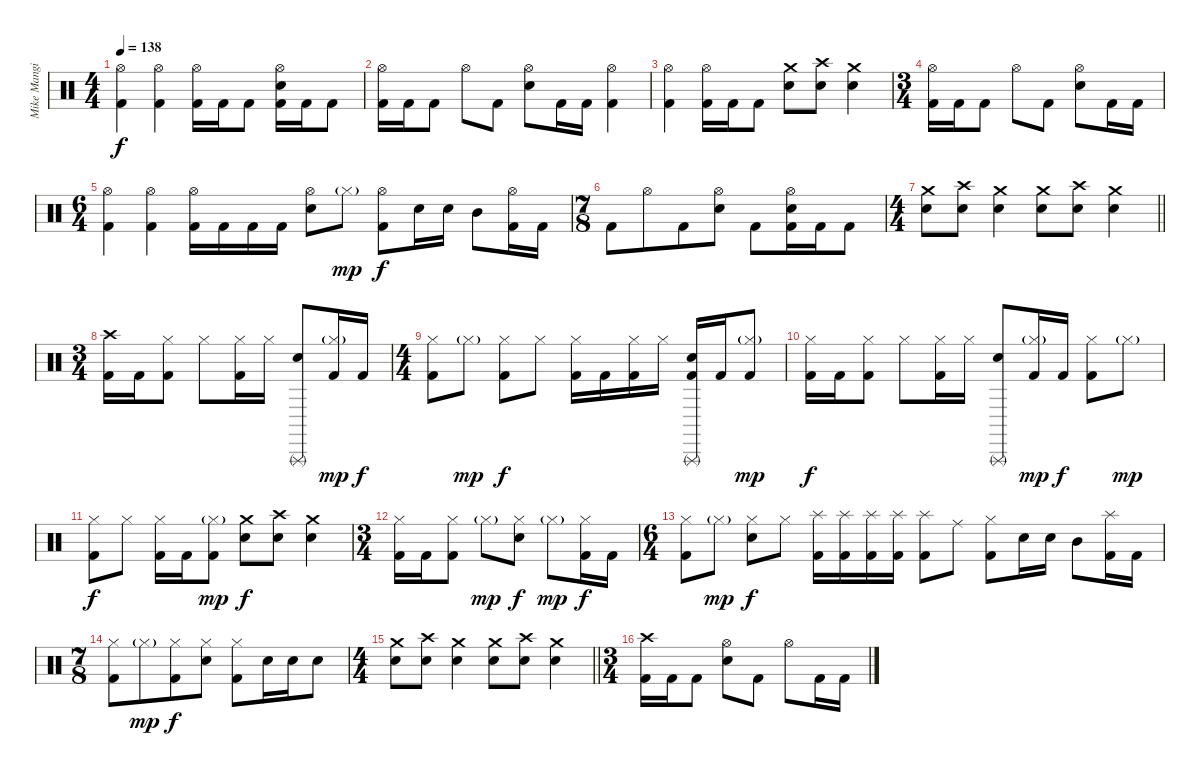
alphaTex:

\track ("Mike Mangini" "Mike Mangi") {instrument percussion}
\staff {score}
\articulation defaults
\ts (4 4)
\tempo 138
\clef neutral
\ks c
("Hi-Hat (open)" "Kick (hit) 2").4{dy f} ("Hi-Hat (open)" "Kick (hit) 2").4 ("Hi-Hat (open)" "Kick (hit) 2").16 "Kick (hit) 2".16 "Kick (hit) 2".8 ("Hi-Hat (open)" "Electric Snare (hit)" "Kick (hit) 2").16 "Kick (hit) 2".16 "Kick (hit) 2".8 |
("Hi-Hat (open)" "Kick (hit) 2").16 "Kick (hit) 2".16 "Kick (hit) 2".8 "Hi-Hat (open)".8 "Kick (hit) 2".8 ("Hi-Hat (open)" "Electric Snare (hit)").8 "Kick (hit) 2".16 "Kick (hit) 2".16 ("Hi-Hat (open)" "Kick (hit) 2").4 |
("Hi-Hat (open)" "Kick (hit) 2").4 ("Hi-Hat (open)" "Kick (hit) 2").16 "Kick (hit) 2".16 "Kick (hit) 2".8 ("Crash medium (hit)" "Electric Snare (hit)").8 ("Crash high (hit)" "Electric Snare (hit)").8 ("Crash medium (hit)" "Electric Snare (hit)").4 |
\ts (3 4)
("Hi-Hat (open)" "Kick (hit) 2").16 "Kick (hit) 2".16 "Kick (hit) 2".8 "Hi-Hat (open)".8 "Kick (hit) 2".8 ("Hi-Hat (open)" "Electric Snare (hit)").8 "Kick (hit) 2".16 "Kick (hit) 2".16 |
\ts (6 4)
("Hi-Hat (open)" "Kick (hit) 2").4 ("Hi-Hat (open)" "Kick (hit) 2").4 ("Hi-Hat (open)" "Kick (hit) 2").16 "Kick (hit) 2".16 "Kick (hit) 2".16 "Kick (hit) 2".16 ("Hi-Hat (open)" "Electric Snare (hit)").8 "Hi-Hat (closed)"{g}.8{dy mp} ("Hi-Hat (open)" "Kick (hit) 2").8{dy f} "Electric Snare (hit)".16 "Electric Snare (hit)".16 "Mid Tom (hit)".8 ("Hi-Hat (open)" "Kick (hit) 2").16 "Kick (hit) 2".16 |
\ts (7 8)
"Kick (hit) 2".8 "Hi-Hat (open)".8 "Kick (hit) 2".8 ("Hi-Hat (open)" "Electric Snare (hit)").8 "Kick (hit) 2".8 ("Hi-Hat (open)" "Electric Snare (hit)" "Kick (hit) 2").16 "Kick (hit) 2".16 "Kick (hit) 2".8 |
\ts (4 4)
\barLineRight lightlight
("Crash medium (hit)" "Electric Snare (hit)").8 ("Crash high (hit)" "Electric Snare (hit)").8 ("Crash medium (hit)" "Electric Snare (hit)").4 ("Crash medium (hit)" "Electric Snare (hit)").8 ("Crash high (hit)" "Electric Snare (hit)").8 ("Crash medium (hit)" "Electric Snare (hit)").4 |
\ts (3 4)
("Crash high (hit)" "Kick (hit) 2").16 "Kick (hit) 2".16 ("Hi-Hat (closed)" "Kick (hit) 2").8 "Hi-Hat (closed)".8 ("Hi-Hat (closed)" "Kick (hit) 2").16 "Hi-Hat (closed)".16 ("Triangle (rnute)" "Electric Snare (hit)").8 ("Hi-Hat (closed)"{g} "Kick (hit) 2").16{dy mp} "Kick (hit) 2".16{dy f} |
\ts (4 4)
("Hi-Hat (closed)" "Kick (hit) 2").8 "Hi-Hat (closed)"{g}.8{dy mp} ("Hi-Hat (closed)" "Kick (hit) 2").8{dy f} "Hi-Hat (closed)".8 ("Hi-Hat (closed)" "Kick (hit) 2").16 "Kick (hit) 2".16 ("Hi-Hat (closed)" "Kick (hit) 2").16 "Hi-Hat (closed)".16 ("Triangle (rnute)" "Electric Snare (hit)" "Kick (hit) 2").16 "Kick (hit) 2".16 ("Hi-Hat (closed)"{g} "Kick (hit) 2").8{dy mp} |
("Hi-Hat (closed)" "Kick (hit) 2").16{dy f} "Kick (hit) 2".16 ("Hi-Hat (closed)" "Kick (hit) 2").8 "Hi-Hat (closed)".8 ("Hi-Hat (closed)" "Kick (hit) 2").16 "Hi-Hat (closed)".16 ("Triangle (rnute)" "Electric Snare (hit)").8 ("Hi-Hat (closed)"{g} "Kick (hit) 2").16{dy mp} "Kick (hit) 2".16{dy f} ("Hi-Hat (closed)" "Kick (hit) 2").8 "Hi-Hat (closed)"{g}.8{dy mp} |
("Hi-Hat (closed)" "Kick (hit) 2").8{dy f} "Hi-Hat (closed)".8 ("Hi-Hat (closed)" "Kick (hit) 2").16 "Kick (hit) 2".16 ("Hi-Hat (closed)"{g} "Kick (hit) 2").8{dy mp} ("Crash medium (hit)" "Electric Snare (hit)").8{dy f} ("Crash high (hit)" "Electric Snare (hit)").8 ("Crash medium (hit)" "Electric Snare (hit)").4 |
\ts (3 4)
("Hi-Hat (closed)" "Kick (hit) 2").16 "Kick (hit) 2".16 ("Hi-Hat (closed)" "Kick (hit) 2").8 "Hi-Hat (closed)"{g}.8{dy mp} ("Hi-Hat (closed)" "Electric Snare (hit)").8{dy f} "Hi-Hat (closed)"{g}.8{dy mp} ("Hi-Hat (closed)" "Kick (hit) 2").16{dy f} "Kick (hit) 2".16 |
\ts (6 4)
("Hi-Hat (closed)" "Kick (hit) 2").8 "Hi-Hat (closed)"{g}.8{dy mp} ("Hi-Hat (closed)" "Electric Snare (hit)").8{dy f} "Hi-Hat (closed)".8 ("Splash (hit)" "Kick (hit) 2").16 ("Splash (hit)" "Kick (hit) 2").16 ("Splash (hit)" "Kick (hit) 2").16 ("Splash (hit)" "Kick (hit) 2").16 ("Splash (hit)" "Kick (hit) 2").8 "Ride (middle)".8 ("Hi-Hat (closed)" "Kick (hit) 2").8 "Electric Snare (hit)".16 "Electric Snare (hit)".16 "Mid Tom (hit)".8 ("Splash (hit)" "Kick (hit) 2").16 "Kick (hit) 2".16 |
\ts (7 8)
("Hi-Hat (closed)" "Kick (hit) 2").8 "Hi-Hat (closed)"{g}.8{dy mp} ("Hi-Hat (closed)" "Kick (hit) 2").8{dy f} ("Hi-Hat (closed)" "Electric Snare (hit)").8 ("Hi-Hat (closed)" "Kick (hit) 2").8 "Electric Snare (hit)".16 "Electric Snare (hit)".16 "Electric Snare (hit)".8 |
\ts (4 4)
\barLineRight lightlight
("Crash medium (hit)" "Electric Snare (hit)").8 ("Crash high (hit)" "Electric Snare (hit)").8 ("Crash medium (hit)" "Electric Snare (hit)").4 ("Crash medium (hit)" "Electric Snare (hit)").8 ("Crash high (hit)" "Electric Snare (hit)").8 ("Crash medium (hit)" "Electric Snare (hit)").4 |
\ts (3 4)
("Crash high (hit)" "Kick (hit) 2").16 "Kick (hit) 2".16 "Kick (hit) 2".8 ("Hi-Hat (open)" "Electric Snare (hit)").8 "Kick (hit) 2".8 "Hi-Hat (open)".8 "Kick (hit) 2".16 "Kick (hit) 2".16
